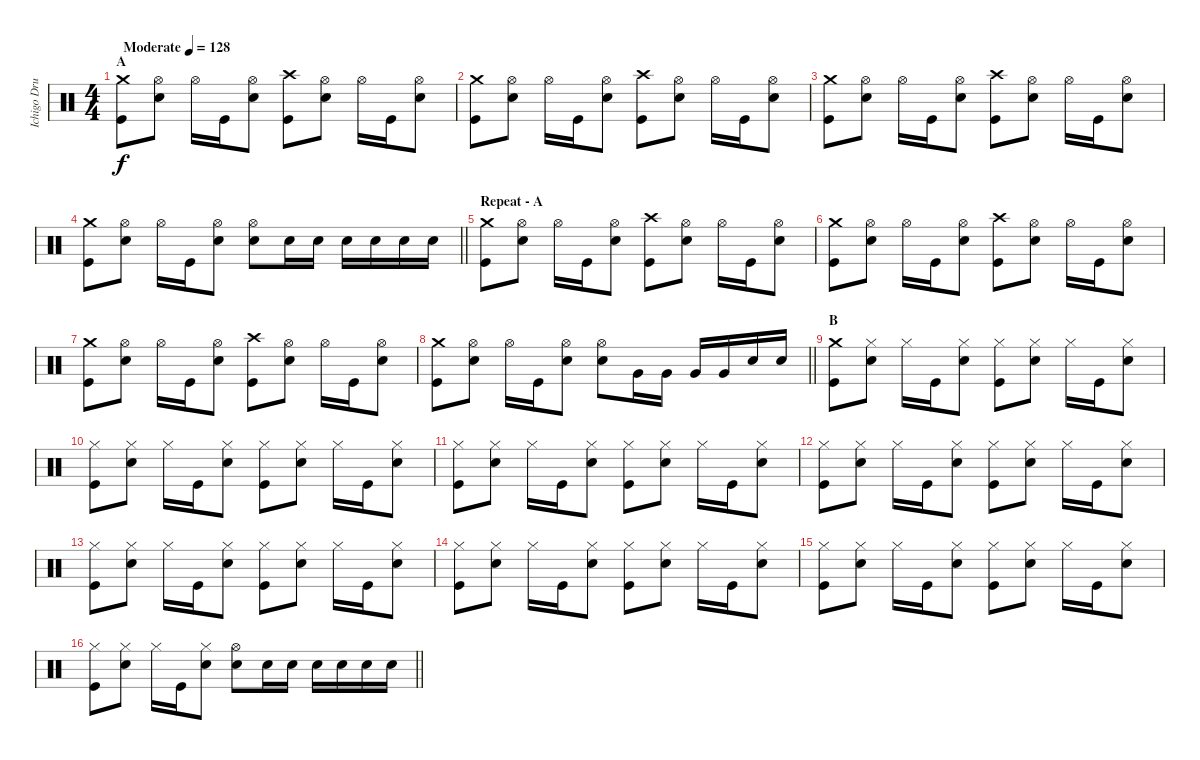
\track ("Ichigo Drums" "Ichigo Dru") {instrument percussion}
\staff {score}
\articulation defaults
\ts (4 4)
\section ("" "A")
\tempo (128 "Moderate")
\clef neutral
\ks c
("Crash medium (hit)" "Kick (hit)").8{dy f} ("Hi-Hat (open)" "Snare (hit) 2").8 "Hi-Hat (open)".16 "Kick (hit)".16 ("Hi-Hat (open)" "Snare (hit) 2").8 ("Crash high (hit)" "Kick (hit)").8 ("Hi-Hat (open)" "Snare (hit) 2").8 "Hi-Hat (open)".16 "Kick (hit)".16 ("Hi-Hat (open)" "Snare (hit) 2").8 |
("Crash medium (hit)" "Kick (hit)").8 ("Hi-Hat (open)" "Snare (hit) 2").8 "Hi-Hat (open)".16 "Kick (hit)".16 ("Hi-Hat (open)" "Snare (hit) 2").8 ("Crash high (hit)" "Kick (hit)").8 ("Hi-Hat (open)" "Snare (hit) 2").8 "Hi-Hat (open)".16 "Kick (hit)".16 ("Hi-Hat (open)" "Snare (hit) 2").8 |
("Crash medium (hit)" "Kick (hit)").8 ("Hi-Hat (open)" "Snare (hit) 2").8 "Hi-Hat (open)".16 "Kick (hit)".16 ("Hi-Hat (open)" "Snare (hit) 2").8 ("Crash high (hit)" "Kick (hit)").8 ("Hi-Hat (open)" "Snare (hit) 2").8 "Hi-Hat (open)".16 "Kick (hit)".16 ("Hi-Hat (open)" "Snare (hit) 2").8 |
\barLineRight lightlight
("Crash medium (hit)" "Kick (hit)").8 ("Hi-Hat (open)" "Snare (hit) 2").8 "Hi-Hat (open)".16 "Kick (hit)".16 ("Hi-Hat (open)" "Snare (hit) 2").8 ("Hi-Hat (open)" "Snare (hit) 2").8 "Snare (hit) 2".16 "Snare (hit) 2".16 "Snare (hit) 2".16 "Snare (hit) 2".16 "Snare (hit) 2".16 "Snare (hit) 2".16 |
\section ("" "Repeat - A")
("Crash medium (hit)" "Kick (hit)").8 ("Hi-Hat (open)" "Snare (hit) 2").8 "Hi-Hat (open)".16 "Kick (hit)".16 ("Hi-Hat (open)" "Snare (hit) 2").8 ("Crash high (hit)" "Kick (hit)").8 ("Hi-Hat (open)" "Snare (hit) 2").8 "Hi-Hat (open)".16 "Kick (hit)".16 ("Hi-Hat (open)" "Snare (hit) 2").8 |
("Crash medium (hit)" "Kick (hit)").8 ("Hi-Hat (open)" "Snare (hit) 2").8 "Hi-Hat (open)".16 "Kick (hit)".16 ("Hi-Hat (open)" "Snare (hit) 2").8 ("Crash high (hit)" "Kick (hit)").8 ("Hi-Hat (open)" "Snare (hit) 2").8 "Hi-Hat (open)".16 "Kick (hit)".16 ("Hi-Hat (open)" "Snare (hit) 2").8 |
("Crash medium (hit)" "Kick (hit)").8 ("Hi-Hat (open)" "Snare (hit) 2").8 "Hi-Hat (open)".16 "Kick (hit)".16 ("Hi-Hat (open)" "Snare (hit) 2").8 ("Crash high (hit)" "Kick (hit)").8 ("Hi-Hat (open)" "Snare (hit) 2").8 "Hi-Hat (open)".16 "Kick (hit)".16 ("Hi-Hat (open)" "Snare (hit) 2").8 |
\barLineRight lightlight
("Crash medium (hit)" "Kick (hit)").8 ("Hi-Hat (open)" "Snare (hit) 2").8 "Hi-Hat (open)".16 "Kick (hit)".16 ("Hi-Hat (open)" "Snare (hit) 2").8 ("Hi-Hat (open)" "Snare (hit) 2").8 "Very Low Tom (hit)".16 "Very Low Tom (hit)".16 "Very Low Tom (hit)".16 "Very Low Tom (hit)".16 "Snare (hit) 2".16 "Snare (hit) 2".16 |
\section ("" "B")
("Crash medium (hit)" "Kick (hit)").8 ("Hi-Hat (closed)" "Snare (hit) 2").8 "Hi-Hat (closed)".16 "Kick (hit)".16 ("Hi-Hat (closed)" "Snare (hit) 2").8 ("Hi-Hat (closed)" "Kick (hit)").8 ("Hi-Hat (closed)" "Snare (hit) 2").8 "Hi-Hat (closed)".16 "Kick (hit)".16 ("Hi-Hat (closed)" "Snare (hit) 2").8 |
("Hi-Hat (closed)" "Kick (hit)").8 ("Hi-Hat (closed)" "Snare (hit) 2").8 "Hi-Hat (closed)".16 "Kick (hit)".16 ("Hi-Hat (closed)" "Snare (hit) 2").8 ("Hi-Hat (closed)" "Kick (hit)").8 ("Hi-Hat (closed)" "Snare (hit) 2").8 "Hi-Hat (closed)".16 "Kick (hit)".16 ("Hi-Hat (closed)" "Snare (hit) 2").8 |
("Hi-Hat (closed)" "Kick (hit)").8 ("Hi-Hat (closed)" "Snare (hit) 2").8 "Hi-Hat (closed)".16 "Kick (hit)".16 ("Hi-Hat (closed)" "Snare (hit) 2").8 ("Hi-Hat (closed)" "Kick (hit)").8 ("Hi-Hat (closed)" "Snare (hit) 2").8 "Hi-Hat (closed)".16 "Kick (hit)".16 ("Hi-Hat (closed)" "Snare (hit) 2").8 |
("Hi-Hat (closed)" "Kick (hit)").8 ("Hi-Hat (closed)" "Snare (hit) 2").8 "Hi-Hat (closed)".16 "Kick (hit)".16 ("Hi-Hat (closed)" "Snare (hit) 2").8 ("Hi-Hat (closed)" "Kick (hit)").8 ("Hi-Hat (closed)" "Snare (hit) 2").8 "Hi-Hat (closed)".16 "Kick (hit)".16 ("Hi-Hat (closed)" "Snare (hit) 2").8 |
("Hi-Hat (closed)" "Kick (hit)").8 ("Hi-Hat (closed)" "Snare (hit) 2").8 "Hi-Hat (closed)".16 "Kick (hit)".16 ("Hi-Hat (closed)" "Snare (hit) 2").8 ("Hi-Hat (closed)" "Kick (hit)").8 ("Hi-Hat (closed)" "Snare (hit) 2").8 "Hi-Hat (closed)".16 "Kick (hit)".16 ("Hi-Hat (closed)" "Snare (hit) 2").8 |
("Hi-Hat (closed)" "Kick (hit)").8 ("Hi-Hat (closed)" "Snare (hit) 2").8 "Hi-Hat (closed)".16 "Kick (hit)".16 ("Hi-Hat (closed)" "Snare (hit) 2").8 ("Hi-Hat (closed)" "Kick (hit)").8 ("Hi-Hat (closed)" "Snare (hit) 2").8 "Hi-Hat (closed)".16 "Kick (hit)".16 ("Hi-Hat (closed)" "Snare (hit) 2").8 |
("Hi-Hat (closed)" "Kick (hit)").8 ("Hi-Hat (closed)" "Snare (hit) 2").8 "Hi-Hat (closed)".16 "Kick (hit)".16 ("Hi-Hat (closed)" "Snare (hit) 2").8 ("Hi-Hat (closed)" "Kick (hit)").8 ("Hi-Hat (closed)" "Snare (hit) 2").8 "Hi-Hat (closed)".16 "Kick (hit)".16 ("Hi-Hat (closed)" "Snare (hit) 2").8 |
\barLineRight lightlight
("Hi-Hat (closed)" "Kick (hit)").8 ("Hi-Hat (closed)" "Snare (hit) 2").8 "Hi-Hat (closed)".16 "Kick (hit)".16 ("Hi-Hat (closed)" "Snare (hit) 2").8 ("Hi-Hat (open)" "Snare (hit) 2").8 "Snare (hit) 2".16 "Snare (hit) 2".16 "Snare (hit) 2".16 "Snare (hit) 2".16 "Snare (hit) 2".16 "Snare (hit) 2".16
